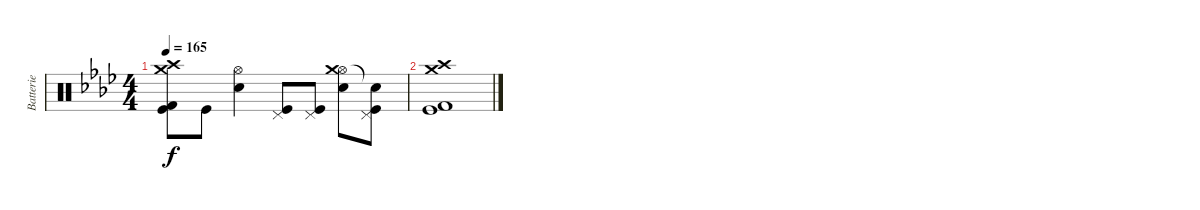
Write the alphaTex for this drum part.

\track ("Batterie" "Batterie") {instrument percussion}
\staff {score}
\articulation defaults
\ts (4 4)
\tempo 165
\clef neutral
\ks ab
("Kick (hit)" "Kick (hit) 2" "Crash high (hit)" "Crash medium (hit)").8{dy f} "Kick (hit)".8 ("Snare (hit) 2" "Hi-Hat (open)").4 ("Kick (hit)" "Pedal Hi-Hat (hit)").8 ("Kick (hit)" "Pedal Hi-Hat (hit)").8 ("Snare (hit) 2" "Hi-Hat (open)" "Crash medium (hit)").8 ("Kick (hit)" "Pedal Hi-Hat (hit)" "Snare (hit)"{t}).8 |
("Kick (hit)" "Kick (hit) 2" "Crash medium (hit)" "Crash high (hit)").1
